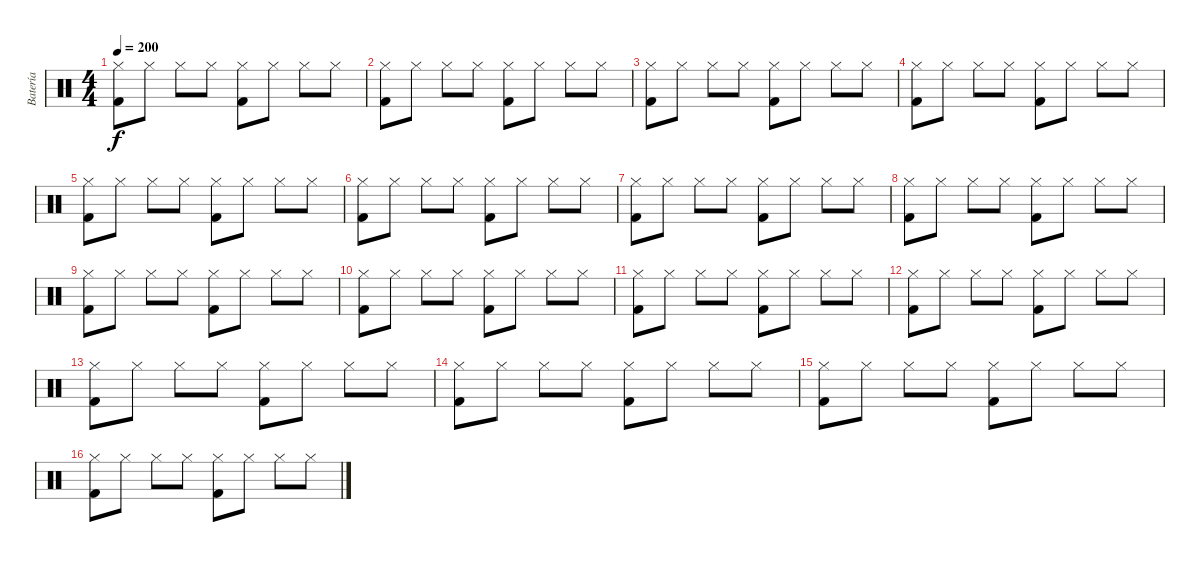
\track ("Batería" "Batería") {instrument percussion}
\staff {score}
\articulation defaults
\ts (4 4)
\tempo 200
\clef neutral
\ks c
("Kick (hit) 2" "Hi-Hat (closed)").8{dy f} "Hi-Hat (closed)".8 "Hi-Hat (closed)".8 "Hi-Hat (closed)".8 ("Kick (hit) 2" "Hi-Hat (closed)").8 "Hi-Hat (closed)".8 "Hi-Hat (closed)".8 "Hi-Hat (closed)".8 |
("Kick (hit) 2" "Hi-Hat (closed)").8 "Hi-Hat (closed)".8 "Hi-Hat (closed)".8 "Hi-Hat (closed)".8 ("Kick (hit) 2" "Hi-Hat (closed)").8 "Hi-Hat (closed)".8 "Hi-Hat (closed)".8 "Hi-Hat (closed)".8 |
("Kick (hit) 2" "Hi-Hat (closed)").8 "Hi-Hat (closed)".8 "Hi-Hat (closed)".8 "Hi-Hat (closed)".8 ("Kick (hit) 2" "Hi-Hat (closed)").8 "Hi-Hat (closed)".8 "Hi-Hat (closed)".8 "Hi-Hat (closed)".8 |
("Kick (hit) 2" "Hi-Hat (closed)").8 "Hi-Hat (closed)".8 "Hi-Hat (closed)".8 "Hi-Hat (closed)".8 ("Kick (hit) 2" "Hi-Hat (closed)").8 "Hi-Hat (closed)".8 "Hi-Hat (closed)".8 "Hi-Hat (closed)".8 |
("Kick (hit) 2" "Hi-Hat (closed)").8 "Hi-Hat (closed)".8 "Hi-Hat (closed)".8 "Hi-Hat (closed)".8 ("Kick (hit) 2" "Hi-Hat (closed)").8 "Hi-Hat (closed)".8 "Hi-Hat (closed)".8 "Hi-Hat (closed)".8 |
("Kick (hit) 2" "Hi-Hat (closed)").8 "Hi-Hat (closed)".8 "Hi-Hat (closed)".8 "Hi-Hat (closed)".8 ("Kick (hit) 2" "Hi-Hat (closed)").8 "Hi-Hat (closed)".8 "Hi-Hat (closed)".8 "Hi-Hat (closed)".8 |
("Kick (hit) 2" "Hi-Hat (closed)").8 "Hi-Hat (closed)".8 "Hi-Hat (closed)".8 "Hi-Hat (closed)".8 ("Kick (hit) 2" "Hi-Hat (closed)").8 "Hi-Hat (closed)".8 "Hi-Hat (closed)".8 "Hi-Hat (closed)".8 |
("Kick (hit) 2" "Hi-Hat (closed)").8 "Hi-Hat (closed)".8 "Hi-Hat (closed)".8 "Hi-Hat (closed)".8 ("Kick (hit) 2" "Hi-Hat (closed)").8 "Hi-Hat (closed)".8 "Hi-Hat (closed)".8 "Hi-Hat (closed)".8 |
("Kick (hit) 2" "Hi-Hat (closed)").8 "Hi-Hat (closed)".8 "Hi-Hat (closed)".8 "Hi-Hat (closed)".8 ("Kick (hit) 2" "Hi-Hat (closed)").8 "Hi-Hat (closed)".8 "Hi-Hat (closed)".8 "Hi-Hat (closed)".8 |
("Kick (hit) 2" "Hi-Hat (closed)").8 "Hi-Hat (closed)".8 "Hi-Hat (closed)".8 "Hi-Hat (closed)".8 ("Kick (hit) 2" "Hi-Hat (closed)").8 "Hi-Hat (closed)".8 "Hi-Hat (closed)".8 "Hi-Hat (closed)".8 |
("Kick (hit) 2" "Hi-Hat (closed)").8 "Hi-Hat (closed)".8 "Hi-Hat (closed)".8 "Hi-Hat (closed)".8 ("Kick (hit) 2" "Hi-Hat (closed)").8 "Hi-Hat (closed)".8 "Hi-Hat (closed)".8 "Hi-Hat (closed)".8 |
("Kick (hit) 2" "Hi-Hat (closed)").8 "Hi-Hat (closed)".8 "Hi-Hat (closed)".8 "Hi-Hat (closed)".8 ("Kick (hit) 2" "Hi-Hat (closed)").8 "Hi-Hat (closed)".8 "Hi-Hat (closed)".8 "Hi-Hat (closed)".8 |
("Kick (hit) 2" "Hi-Hat (closed)").8 "Hi-Hat (closed)".8 "Hi-Hat (closed)".8 "Hi-Hat (closed)".8 ("Kick (hit) 2" "Hi-Hat (closed)").8 "Hi-Hat (closed)".8 "Hi-Hat (closed)".8 "Hi-Hat (closed)".8 |
("Kick (hit) 2" "Hi-Hat (closed)").8 "Hi-Hat (closed)".8 "Hi-Hat (closed)".8 "Hi-Hat (closed)".8 ("Kick (hit) 2" "Hi-Hat (closed)").8 "Hi-Hat (closed)".8 "Hi-Hat (closed)".8 "Hi-Hat (closed)".8 |
("Kick (hit) 2" "Hi-Hat (closed)").8 "Hi-Hat (closed)".8 "Hi-Hat (closed)".8 "Hi-Hat (closed)".8 ("Kick (hit) 2" "Hi-Hat (closed)").8 "Hi-Hat (closed)".8 "Hi-Hat (closed)".8 "Hi-Hat (closed)".8 |
("Kick (hit) 2" "Hi-Hat (closed)").8 "Hi-Hat (closed)".8 "Hi-Hat (closed)".8 "Hi-Hat (closed)".8 ("Kick (hit) 2" "Hi-Hat (closed)").8 "Hi-Hat (closed)".8 "Hi-Hat (closed)".8 "Hi-Hat (closed)".8
